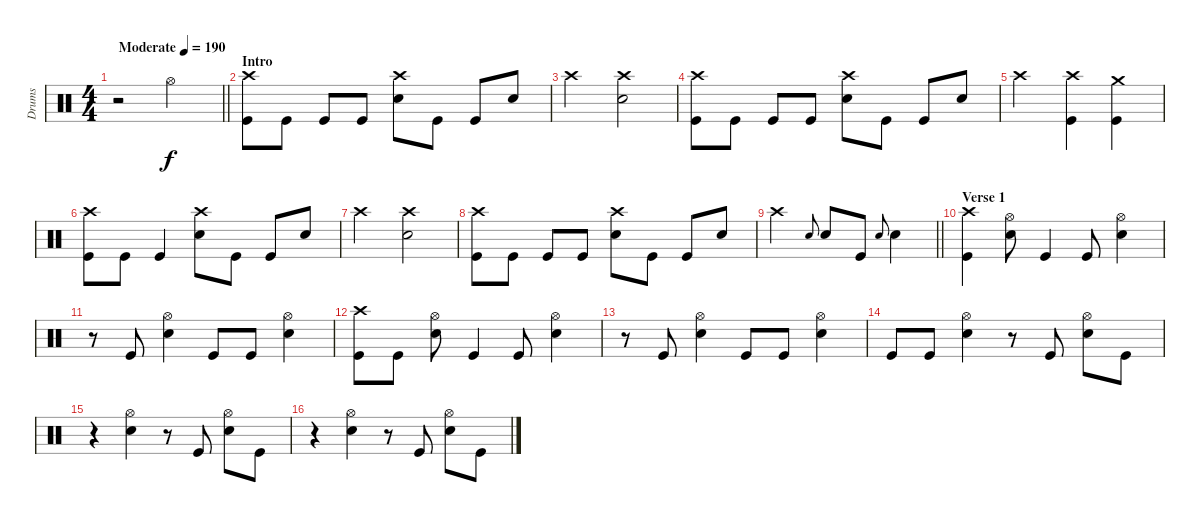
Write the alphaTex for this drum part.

\track ("Drums" "Drums") {instrument percussion}
\staff {score}
\articulation defaults
\ts (4 4)
\tempo (190 "Moderate")
\clef neutral
\barLineRight lightlight
\ks c
r.2{dy f} "Hi-Hat (open)".2 |
\section ("" "Intro")
("Crash high (hit)" "Kick (hit)").8 "Kick (hit)".8 "Kick (hit)".8 "Kick (hit)".8 ("Crash high (hit)" "Snare (hit) 2").8 "Kick (hit)".8 "Kick (hit)".8 "Snare (hit) 2".8 |
"Crash high (hit)".2 ("Crash high (hit)" "Snare (hit) 2").2 |
("Crash high (hit)" "Kick (hit)").8 "Kick (hit)".8 "Kick (hit)".8 "Kick (hit)".8 ("Crash high (hit)" "Snare (hit) 2").8 "Kick (hit)".8 "Kick (hit)".8 "Snare (hit) 2".8 |
"Crash high (hit)".2 ("Crash high (hit)" "Kick (hit)").4 ("Crash medium (hit)" "Kick (hit)").4 |
("Crash high (hit)" "Kick (hit)").8 "Kick (hit)".8 "Kick (hit)".4 ("Crash high (hit)" "Snare (hit) 2").8 "Kick (hit)".8 "Kick (hit)".8 "Snare (hit) 2".8 |
"Crash high (hit)".2 ("Crash high (hit)" "Snare (hit) 2").2 |
("Crash high (hit)" "Kick (hit)").8 "Kick (hit)".8 "Kick (hit)".8 "Kick (hit)".8 ("Crash high (hit)" "Snare (hit) 2").8 "Kick (hit)".8 "Kick (hit)".8 "Snare (hit) 2".8 |
\barLineRight lightlight "Crash high (hit)".2 "Snare (hit) 2".8{gr onbeat} "Snare (hit) 2".8 "Kick (hit)".8 "Snare (hit) 2".8{gr onbeat} "Snare (hit) 2".4
|
\section ("" "Verse 1")
("Crash high (hit)" "Kick (hit)").4 ("Hi-Hat (open)" "Snare (hit) 2").8 "Kick (hit)".4 "Kick (hit)".8 ("Hi-Hat (open)" "Snare (hit) 2").4 |
r.8 "Kick (hit)".8 ("Hi-Hat (open)" "Snare (hit) 2").4 "Kick (hit)".8 "Kick (hit)".8 ("Hi-Hat (open)" "Snare (hit) 2").4 |
("Crash high (hit)" "Kick (hit)").8 "Kick (hit)".8 ("Hi-Hat (open)" "Snare (hit) 2").8 "Kick (hit)".4 "Kick (hit)".8 ("Hi-Hat (open)" "Snare (hit) 2").4 |
r.8 "Kick (hit)".8 ("Hi-Hat (open)" "Snare (hit) 2").4 "Kick (hit)".8 "Kick (hit)".8 ("Hi-Hat (open)" "Snare (hit) 2").4 |
"Kick (hit)".8 "Kick (hit)".8 ("Hi-Hat (open)" "Snare (hit) 2").4 r.8 "Kick (hit)".8 ("Hi-Hat (open)" "Snare (hit) 2").8 "Kick (hit)".8 |
r.4 ("Hi-Hat (open)" "Snare (hit) 2").4 r.8 "Kick (hit)".8 ("Hi-Hat (open)" "Snare (hit) 2").8 "Kick (hit)".8 |
r.4 ("Hi-Hat (open)" "Snare (hit) 2").4 r.8 "Kick (hit)".8 ("Hi-Hat (open)" "Snare (hit) 2").8 "Kick (hit)".8
